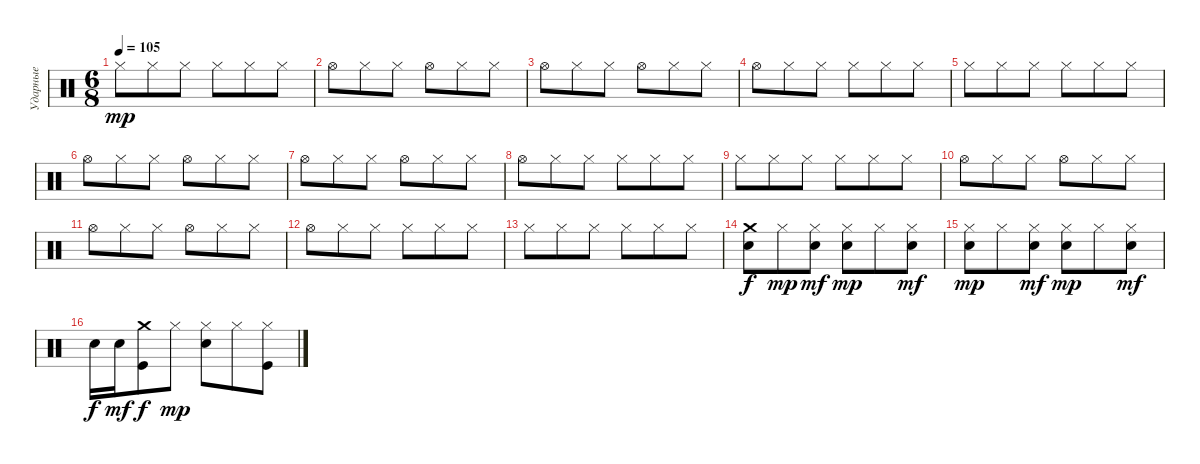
\track ("Ударные" "Ударные") {instrument percussion}
\staff {score}
\articulation defaults
\ts (6 8)
\tempo 105
\clef neutral
\ks c "Hi-Hat (closed)".8{dy mp} "Hi-Hat (closed)".8 "Hi-Hat (closed)".8 "Hi-Hat (closed)".8 "Hi-Hat (closed)".8 "Hi-Hat (closed)".8
|
"Hi-Hat (open)".8 "Hi-Hat (closed)".8 "Hi-Hat (closed)".8 "Hi-Hat (open)".8 "Hi-Hat (closed)".8 "Hi-Hat (closed)".8 |
"Hi-Hat (open)".8 "Hi-Hat (closed)".8 "Hi-Hat (closed)".8 "Hi-Hat (open)".8 "Hi-Hat (closed)".8 "Hi-Hat (closed)".8 |
"Hi-Hat (open)".8 "Hi-Hat (closed)".8 "Hi-Hat (closed)".8 "Hi-Hat (closed)".8 "Hi-Hat (closed)".8 "Hi-Hat (closed)".8 |
"Hi-Hat (closed)".8 "Hi-Hat (closed)".8 "Hi-Hat (closed)".8 "Hi-Hat (closed)".8 "Hi-Hat (closed)".8 "Hi-Hat (closed)".8 |
"Hi-Hat (open)".8 "Hi-Hat (closed)".8 "Hi-Hat (closed)".8 "Hi-Hat (open)".8 "Hi-Hat (closed)".8 "Hi-Hat (closed)".8 |
"Hi-Hat (open)".8 "Hi-Hat (closed)".8 "Hi-Hat (closed)".8 "Hi-Hat (open)".8 "Hi-Hat (closed)".8 "Hi-Hat (closed)".8 |
"Hi-Hat (open)".8 "Hi-Hat (closed)".8 "Hi-Hat (closed)".8 "Hi-Hat (closed)".8 "Hi-Hat (closed)".8 "Hi-Hat (closed)".8 |
"Hi-Hat (closed)".8 "Hi-Hat (closed)".8 "Hi-Hat (closed)".8 "Hi-Hat (closed)".8 "Hi-Hat (closed)".8 "Hi-Hat (closed)".8 |
"Hi-Hat (open)".8 "Hi-Hat (closed)".8 "Hi-Hat (closed)".8 "Hi-Hat (open)".8 "Hi-Hat (closed)".8 "Hi-Hat (closed)".8 |
"Hi-Hat (open)".8 "Hi-Hat (closed)".8 "Hi-Hat (closed)".8 "Hi-Hat (open)".8 "Hi-Hat (closed)".8 "Hi-Hat (closed)".8 |
"Hi-Hat (open)".8 "Hi-Hat (closed)".8 "Hi-Hat (closed)".8 "Hi-Hat (closed)".8 "Hi-Hat (closed)".8 "Hi-Hat (closed)".8 |
"Hi-Hat (closed)".8 "Hi-Hat (closed)".8 "Hi-Hat (closed)".8 "Hi-Hat (closed)".8 "Hi-Hat (closed)".8 "Hi-Hat (closed)".8 |
("Crash medium (hit)" "Electric Snare (hit)").8{dy f} "Hi-Hat (closed)".8{dy mp} ("Hi-Hat (closed)" "Electric Snare (hit)").8{dy mf} ("Hi-Hat (closed)" "Electric Snare (hit)").8{dy mp} "Hi-Hat (closed)".8 ("Hi-Hat (closed)" "Electric Snare (hit)").8{dy mf} |
("Hi-Hat (closed)" "Electric Snare (hit)").8{dy mp} "Hi-Hat (closed)".8 ("Hi-Hat (closed)" "Electric Snare (hit)").8{dy mf} ("Hi-Hat (closed)" "Electric Snare (hit)").8{dy mp} "Hi-Hat (closed)".8 ("Hi-Hat (closed)" "Electric Snare (hit)").8{dy mf} |
"Electric Snare (hit)".16{dy f} "Electric Snare (hit)".16{dy mf} ("Crash medium (hit)" "Kick (hit)").8{dy f} "Hi-Hat (closed)".8{dy mp} ("Hi-Hat (closed)" "Electric Snare (hit)").8 "Hi-Hat (closed)".8 ("Hi-Hat (closed)" "Kick (hit)").8
